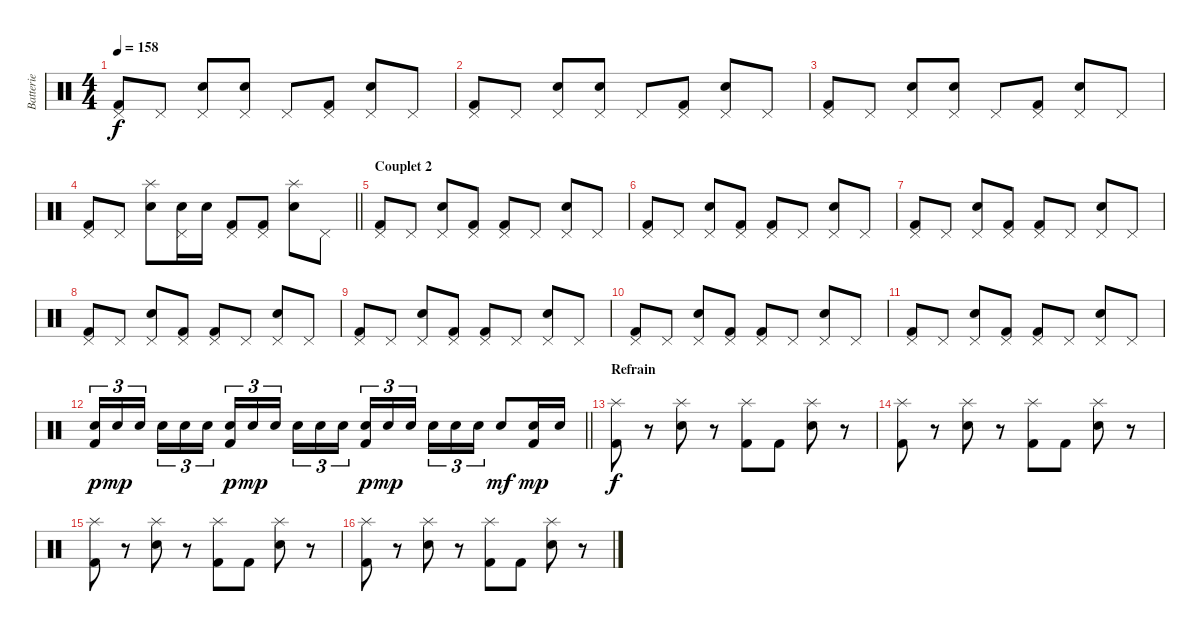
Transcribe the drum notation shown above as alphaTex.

\track ("Batterie" "Batterie") {instrument percussion}
\staff {score}
\articulation defaults
\ts (4 4)
\tempo 158
\clef neutral
\ks c
("Pedal Hi-Hat (hit)" "Kick (hit) 2").8{dy f} "Pedal Hi-Hat (hit)".8 ("Pedal Hi-Hat (hit)" "Electric Snare (hit)").8 ("Pedal Hi-Hat (hit)" "Electric Snare (hit)").8 "Pedal Hi-Hat (hit)".8 ("Pedal Hi-Hat (hit)" "Kick (hit) 2").8 ("Pedal Hi-Hat (hit)" "Electric Snare (hit)").8 "Pedal Hi-Hat (hit)".8 |
("Pedal Hi-Hat (hit)" "Kick (hit) 2").8 "Pedal Hi-Hat (hit)".8 ("Pedal Hi-Hat (hit)" "Electric Snare (hit)").8 ("Pedal Hi-Hat (hit)" "Electric Snare (hit)").8 "Pedal Hi-Hat (hit)".8 ("Pedal Hi-Hat (hit)" "Kick (hit) 2").8 ("Pedal Hi-Hat (hit)" "Electric Snare (hit)").8 "Pedal Hi-Hat (hit)".8 |
("Pedal Hi-Hat (hit)" "Kick (hit) 2").8 "Pedal Hi-Hat (hit)".8 ("Pedal Hi-Hat (hit)" "Electric Snare (hit)").8 ("Pedal Hi-Hat (hit)" "Electric Snare (hit)").8 "Pedal Hi-Hat (hit)".8 ("Pedal Hi-Hat (hit)" "Kick (hit) 2").8 ("Pedal Hi-Hat (hit)" "Electric Snare (hit)").8 "Pedal Hi-Hat (hit)".8 |
\barLineRight lightlight
("Pedal Hi-Hat (hit)" "Kick (hit) 2").8 "Pedal Hi-Hat (hit)".8 ("Splash (hit)" "Electric Snare (hit)").8 ("Pedal Hi-Hat (hit)" "Electric Snare (hit)").16 "Electric Snare (hit)".16 ("Pedal Hi-Hat (hit)" "Kick (hit) 2").8 ("Pedal Hi-Hat (hit)" "Kick (hit) 2").8 ("Splash (hit)" "Electric Snare (hit)").8 "Pedal Hi-Hat (hit)".8 |
\section ("" "Couplet 2")
("Pedal Hi-Hat (hit)" "Kick (hit) 2").8 "Pedal Hi-Hat (hit)".8 ("Pedal Hi-Hat (hit)" "Electric Snare (hit)").8 ("Pedal Hi-Hat (hit)" "Kick (hit) 2").8 ("Pedal Hi-Hat (hit)" "Kick (hit) 2").8 "Pedal Hi-Hat (hit)".8 ("Pedal Hi-Hat (hit)" "Electric Snare (hit)").8 "Pedal Hi-Hat (hit)".8 |
("Pedal Hi-Hat (hit)" "Kick (hit) 2").8 "Pedal Hi-Hat (hit)".8 ("Pedal Hi-Hat (hit)" "Electric Snare (hit)").8 ("Pedal Hi-Hat (hit)" "Kick (hit) 2").8 ("Pedal Hi-Hat (hit)" "Kick (hit) 2").8 "Pedal Hi-Hat (hit)".8 ("Pedal Hi-Hat (hit)" "Electric Snare (hit)").8 "Pedal Hi-Hat (hit)".8 |
("Pedal Hi-Hat (hit)" "Kick (hit) 2").8 "Pedal Hi-Hat (hit)".8 ("Pedal Hi-Hat (hit)" "Electric Snare (hit)").8 ("Pedal Hi-Hat (hit)" "Kick (hit) 2").8 ("Pedal Hi-Hat (hit)" "Kick (hit) 2").8 "Pedal Hi-Hat (hit)".8 ("Pedal Hi-Hat (hit)" "Electric Snare (hit)").8 "Pedal Hi-Hat (hit)".8 |
("Pedal Hi-Hat (hit)" "Kick (hit) 2").8 "Pedal Hi-Hat (hit)".8 ("Pedal Hi-Hat (hit)" "Electric Snare (hit)").8 ("Pedal Hi-Hat (hit)" "Kick (hit) 2").8 ("Pedal Hi-Hat (hit)" "Kick (hit) 2").8 "Pedal Hi-Hat (hit)".8 ("Pedal Hi-Hat (hit)" "Electric Snare (hit)").8 "Pedal Hi-Hat (hit)".8 |
("Pedal Hi-Hat (hit)" "Kick (hit) 2").8 "Pedal Hi-Hat (hit)".8 ("Pedal Hi-Hat (hit)" "Electric Snare (hit)").8 ("Pedal Hi-Hat (hit)" "Kick (hit) 2").8 ("Pedal Hi-Hat (hit)" "Kick (hit) 2").8 "Pedal Hi-Hat (hit)".8 ("Pedal Hi-Hat (hit)" "Electric Snare (hit)").8 "Pedal Hi-Hat (hit)".8 |
("Pedal Hi-Hat (hit)" "Kick (hit) 2").8 "Pedal Hi-Hat (hit)".8 ("Pedal Hi-Hat (hit)" "Electric Snare (hit)").8 ("Pedal Hi-Hat (hit)" "Kick (hit) 2").8 ("Pedal Hi-Hat (hit)" "Kick (hit) 2").8 "Pedal Hi-Hat (hit)".8 ("Pedal Hi-Hat (hit)" "Electric Snare (hit)").8 "Pedal Hi-Hat (hit)".8 |
("Pedal Hi-Hat (hit)" "Kick (hit) 2").8 "Pedal Hi-Hat (hit)".8 ("Pedal Hi-Hat (hit)" "Electric Snare (hit)").8 ("Pedal Hi-Hat (hit)" "Kick (hit) 2").8 ("Pedal Hi-Hat (hit)" "Kick (hit) 2").8 "Pedal Hi-Hat (hit)".8 ("Pedal Hi-Hat (hit)" "Electric Snare (hit)").8 "Pedal Hi-Hat (hit)".8 |
\barLineRight lightlight
("Electric Snare (hit)" "Kick (hit) 2").16{tu (3 2) dy p} "Electric Snare (hit)".16{tu (3 2) dy mp} "Electric Snare (hit)".16{tu (3 2) beam splitsecondary} "Electric Snare (hit)".16{tu (3 2)} "Electric Snare (hit)".16{tu (3 2)} "Electric Snare (hit)".16{tu (3 2)} ("Electric Snare (hit)" "Kick (hit) 2").16{tu (3 2) dy p} "Electric Snare (hit)".16{tu (3 2) dy mp} "Electric Snare (hit)".16{tu (3 2) beam splitsecondary} "Electric Snare (hit)".16{tu (3 2)} "Electric Snare (hit)".16{tu (3 2)} "Electric Snare (hit)".16{tu (3 2)} ("Electric Snare (hit)" "Kick (hit) 2").16{tu (3 2) dy p} "Electric Snare (hit)".16{tu (3 2) dy mp} "Electric Snare (hit)".16{tu (3 2) beam splitsecondary} "Electric Snare (hit)".16{tu (3 2)} "Electric Snare (hit)".16{tu (3 2)} "Electric Snare (hit)".16{tu (3 2)} "Electric Snare (hit)".8{dy mf} ("Electric Snare (hit)" "Kick (hit) 2").16{dy mp} "Electric Snare (hit)".16 |
\section ("" "Refrain")
("Splash (hit)" "Kick (hit) 2").8{dy f} r.8 ("Splash (hit)" "Electric Snare (hit)").8 r.8 ("Splash (hit)" "Kick (hit) 2").8 "Kick (hit) 2".8 ("Splash (hit)" "Electric Snare (hit)").8 r.8 |
("Splash (hit)" "Kick (hit) 2").8 r.8 ("Splash (hit)" "Electric Snare (hit)").8 r.8 ("Splash (hit)" "Kick (hit) 2").8 "Kick (hit) 2".8 ("Splash (hit)" "Electric Snare (hit)").8 r.8 |
("Splash (hit)" "Kick (hit) 2").8 r.8 ("Splash (hit)" "Electric Snare (hit)").8 r.8 ("Splash (hit)" "Kick (hit) 2").8 "Kick (hit) 2".8 ("Splash (hit)" "Electric Snare (hit)").8 r.8 |
("Splash (hit)" "Kick (hit) 2").8 r.8 ("Splash (hit)" "Electric Snare (hit)").8 r.8 ("Splash (hit)" "Kick (hit) 2").8 "Kick (hit) 2".8 ("Splash (hit)" "Electric Snare (hit)").8 r.8
